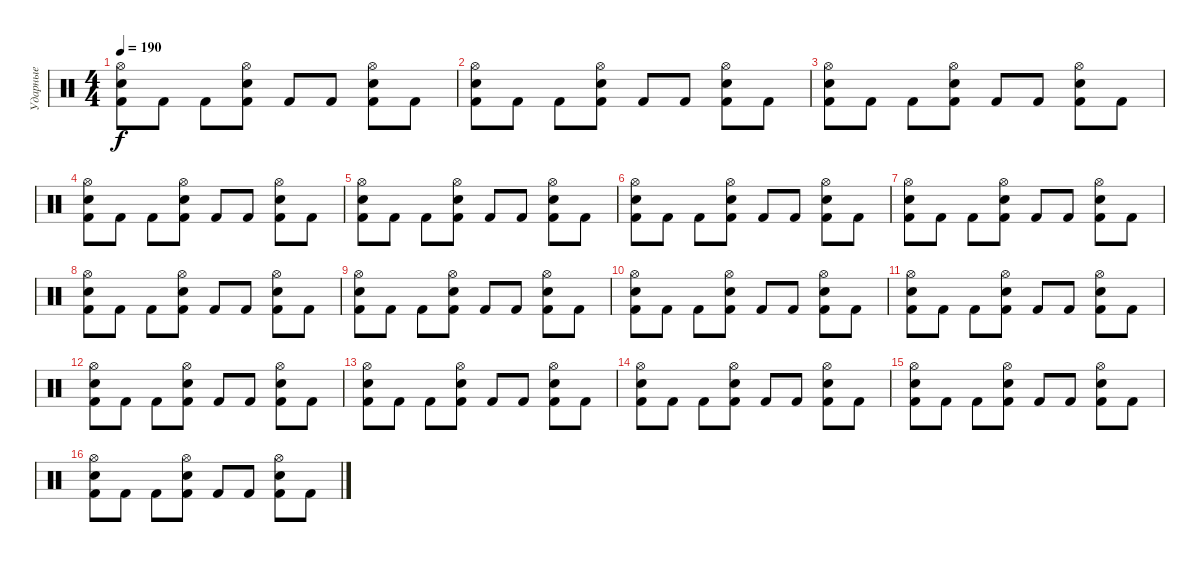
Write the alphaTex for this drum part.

\track ("Ударные" "Ударные") {instrument percussion}
\staff {score}
\articulation defaults
\ts (4 4)
\tempo 190
\clef neutral
\ks c
("Kick (hit) 2" "Snare (hit) 2" "Hi-Hat (open)").8{dy f} "Kick (hit) 2".8 "Kick (hit) 2".8 ("Kick (hit) 2" "Snare (hit) 2" "Hi-Hat (open)").8 "Kick (hit) 2".8 "Kick (hit) 2".8 ("Kick (hit) 2" "Snare (hit) 2" "Hi-Hat (open)").8 "Kick (hit) 2".8 |
("Kick (hit) 2" "Snare (hit) 2" "Hi-Hat (open)").8 "Kick (hit) 2".8 "Kick (hit) 2".8 ("Kick (hit) 2" "Snare (hit) 2" "Hi-Hat (open)").8 "Kick (hit) 2".8 "Kick (hit) 2".8 ("Kick (hit) 2" "Snare (hit) 2" "Hi-Hat (open)").8 "Kick (hit) 2".8 |
("Kick (hit) 2" "Snare (hit) 2" "Hi-Hat (open)").8 "Kick (hit) 2".8 "Kick (hit) 2".8 ("Kick (hit) 2" "Snare (hit) 2" "Hi-Hat (open)").8 "Kick (hit) 2".8 "Kick (hit) 2".8 ("Kick (hit) 2" "Snare (hit) 2" "Hi-Hat (open)").8 "Kick (hit) 2".8 |
("Kick (hit) 2" "Snare (hit) 2" "Hi-Hat (open)").8 "Kick (hit) 2".8 "Kick (hit) 2".8 ("Kick (hit) 2" "Snare (hit) 2" "Hi-Hat (open)").8 "Kick (hit) 2".8 "Kick (hit) 2".8 ("Kick (hit) 2" "Snare (hit) 2" "Hi-Hat (open)").8 "Kick (hit) 2".8 |
("Kick (hit) 2" "Snare (hit) 2" "Hi-Hat (open)").8 "Kick (hit) 2".8 "Kick (hit) 2".8 ("Kick (hit) 2" "Snare (hit) 2" "Hi-Hat (open)").8 "Kick (hit) 2".8 "Kick (hit) 2".8 ("Kick (hit) 2" "Snare (hit) 2" "Hi-Hat (open)").8 "Kick (hit) 2".8 |
("Kick (hit) 2" "Snare (hit) 2" "Hi-Hat (open)").8 "Kick (hit) 2".8 "Kick (hit) 2".8 ("Kick (hit) 2" "Snare (hit) 2" "Hi-Hat (open)").8 "Kick (hit) 2".8 "Kick (hit) 2".8 ("Kick (hit) 2" "Snare (hit) 2" "Hi-Hat (open)").8 "Kick (hit) 2".8 |
("Kick (hit) 2" "Snare (hit) 2" "Hi-Hat (open)").8 "Kick (hit) 2".8 "Kick (hit) 2".8 ("Kick (hit) 2" "Snare (hit) 2" "Hi-Hat (open)").8 "Kick (hit) 2".8 "Kick (hit) 2".8 ("Kick (hit) 2" "Snare (hit) 2" "Hi-Hat (open)").8 "Kick (hit) 2".8 |
("Kick (hit) 2" "Snare (hit) 2" "Hi-Hat (open)").8 "Kick (hit) 2".8 "Kick (hit) 2".8 ("Kick (hit) 2" "Snare (hit) 2" "Hi-Hat (open)").8 "Kick (hit) 2".8 "Kick (hit) 2".8 ("Kick (hit) 2" "Snare (hit) 2" "Hi-Hat (open)").8 "Kick (hit) 2".8 |
("Kick (hit) 2" "Snare (hit) 2" "Hi-Hat (open)").8 "Kick (hit) 2".8 "Kick (hit) 2".8 ("Kick (hit) 2" "Snare (hit) 2" "Hi-Hat (open)").8 "Kick (hit) 2".8 "Kick (hit) 2".8 ("Kick (hit) 2" "Snare (hit) 2" "Hi-Hat (open)").8 "Kick (hit) 2".8 |
("Kick (hit) 2" "Snare (hit) 2" "Hi-Hat (open)").8 "Kick (hit) 2".8 "Kick (hit) 2".8 ("Kick (hit) 2" "Snare (hit) 2" "Hi-Hat (open)").8 "Kick (hit) 2".8 "Kick (hit) 2".8 ("Kick (hit) 2" "Snare (hit) 2" "Hi-Hat (open)").8 "Kick (hit) 2".8 |
("Kick (hit) 2" "Snare (hit) 2" "Hi-Hat (open)").8 "Kick (hit) 2".8 "Kick (hit) 2".8 ("Kick (hit) 2" "Snare (hit) 2" "Hi-Hat (open)").8 "Kick (hit) 2".8 "Kick (hit) 2".8 ("Kick (hit) 2" "Snare (hit) 2" "Hi-Hat (open)").8 "Kick (hit) 2".8 |
("Kick (hit) 2" "Snare (hit) 2" "Hi-Hat (open)").8 "Kick (hit) 2".8 "Kick (hit) 2".8 ("Kick (hit) 2" "Snare (hit) 2" "Hi-Hat (open)").8 "Kick (hit) 2".8 "Kick (hit) 2".8 ("Kick (hit) 2" "Snare (hit) 2" "Hi-Hat (open)").8 "Kick (hit) 2".8 |
("Kick (hit) 2" "Snare (hit) 2" "Hi-Hat (open)").8 "Kick (hit) 2".8 "Kick (hit) 2".8 ("Kick (hit) 2" "Snare (hit) 2" "Hi-Hat (open)").8 "Kick (hit) 2".8 "Kick (hit) 2".8 ("Kick (hit) 2" "Snare (hit) 2" "Hi-Hat (open)").8 "Kick (hit) 2".8 |
("Kick (hit) 2" "Snare (hit) 2" "Hi-Hat (open)").8 "Kick (hit) 2".8 "Kick (hit) 2".8 ("Kick (hit) 2" "Snare (hit) 2" "Hi-Hat (open)").8 "Kick (hit) 2".8 "Kick (hit) 2".8 ("Kick (hit) 2" "Snare (hit) 2" "Hi-Hat (open)").8 "Kick (hit) 2".8 |
("Kick (hit) 2" "Snare (hit) 2" "Hi-Hat (open)").8 "Kick (hit) 2".8 "Kick (hit) 2".8 ("Kick (hit) 2" "Snare (hit) 2" "Hi-Hat (open)").8 "Kick (hit) 2".8 "Kick (hit) 2".8 ("Kick (hit) 2" "Snare (hit) 2" "Hi-Hat (open)").8 "Kick (hit) 2".8 |
("Kick (hit) 2" "Snare (hit) 2" "Hi-Hat (open)").8 "Kick (hit) 2".8 "Kick (hit) 2".8 ("Kick (hit) 2" "Snare (hit) 2" "Hi-Hat (open)").8 "Kick (hit) 2".8 "Kick (hit) 2".8 ("Kick (hit) 2" "Snare (hit) 2" "Hi-Hat (open)").8 "Kick (hit) 2".8
